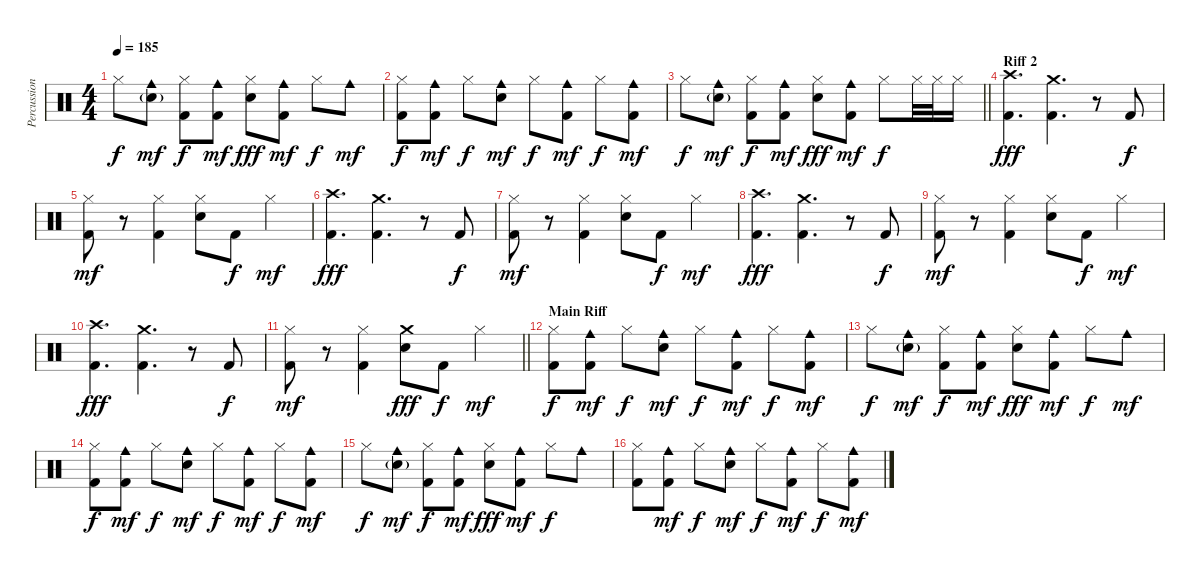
\track ("Percussions" "Percussion") {instrument percussion}
\staff {score}
\articulation defaults
\ts (4 4)
\tempo 185
\clef neutral
\ks c "Hi-Hat (closed)".8{dy f}
("Electric Snare (hit)"{g} "Cowbell medium (hit)").8{dy mf} ("Kick (hit) 2" "Hi-Hat (closed)").8{dy f} ("Kick (hit) 2" "Cowbell medium (hit)").8{dy mf} ("Electric Snare (hit)" "Hi-Hat (closed)").8{dy fff} ("Kick (hit) 2" "Cowbell medium (hit)").8{dy mf} "Hi-Hat (closed)".8{dy f} "Cowbell medium (hit)".8{dy mf} |
("Kick (hit) 2" "Hi-Hat (closed)").8{dy f} ("Kick (hit) 2" "Cowbell medium (hit)").8{dy mf} "Hi-Hat (closed)".8{dy f} ("Electric Snare (hit)" "Cowbell medium (hit)").8{dy mf} "Hi-Hat (closed)".8{dy f} ("Kick (hit) 2" "Cowbell medium (hit)").8{dy mf} "Hi-Hat (closed)".8{dy f} ("Kick (hit) 2" "Cowbell medium (hit)").8{dy mf} |
\barLineRight lightlight "Hi-Hat (closed)".8{dy f}
("Electric Snare (hit)"{g} "Cowbell medium (hit)").8{dy mf} ("Kick (hit) 2" "Hi-Hat (closed)").8{dy f} ("Kick (hit) 2" "Cowbell medium (hit)").8{dy mf} ("Electric Snare (hit)" "Hi-Hat (closed)").8{dy fff} ("Kick (hit) 2" "Cowbell medium (hit)").8{dy mf} "Hi-Hat (closed)".8{dy f} "Hi-Hat (closed)".32 "Hi-Hat (closed)".32 "Hi-Hat (closed)".16 |
\section ("" "Riff 2")
("Crash high (hit)" "Kick (hit) 2").4{d dy fff} ("Crash medium (hit)" "Kick (hit) 2").4{d} r.8 "Kick (hit) 2".8{dy f} |
("Kick (hit) 2" "Hi-Hat (closed)").8{dy mf} r.8 ("Kick (hit) 2" "Hi-Hat (closed)").4 ("Electric Snare (hit)" "Hi-Hat (closed)").8 "Kick (hit) 2".8{dy f} "Hi-Hat (closed)".4{dy mf} |
("Crash high (hit)" "Kick (hit) 2").4{d dy fff} ("Crash medium (hit)" "Kick (hit) 2").4{d} r.8 "Kick (hit) 2".8{dy f} |
("Kick (hit) 2" "Hi-Hat (closed)").8{dy mf} r.8 ("Kick (hit) 2" "Hi-Hat (closed)").4 ("Electric Snare (hit)" "Hi-Hat (closed)").8 "Kick (hit) 2".8{dy f} "Hi-Hat (closed)".4{dy mf} |
("Crash high (hit)" "Kick (hit) 2").4{d dy fff} ("Crash medium (hit)" "Kick (hit) 2").4{d} r.8 "Kick (hit) 2".8{dy f} |
("Kick (hit) 2" "Hi-Hat (closed)").8{dy mf} r.8 ("Kick (hit) 2" "Hi-Hat (closed)").4 ("Electric Snare (hit)" "Hi-Hat (closed)").8 "Kick (hit) 2".8{dy f} "Hi-Hat (closed)".4{dy mf} |
("Crash high (hit)" "Kick (hit) 2").4{d dy fff} ("Crash medium (hit)" "Kick (hit) 2").4{d} r.8 "Kick (hit) 2".8{dy f} |
\barLineRight lightlight
("Kick (hit) 2" "Hi-Hat (closed)").8{dy mf} r.8 ("Kick (hit) 2" "Hi-Hat (closed)").4 ("Crash medium (hit)" "Electric Snare (hit)").8{dy fff} "Kick (hit) 2".8{dy f} "Hi-Hat (closed)".4{dy mf} |
\section ("" "Main Riff")
("Kick (hit) 2" "Hi-Hat (closed)").8{dy f} ("Kick (hit) 2" "Cowbell medium (hit)").8{dy mf} "Hi-Hat (closed)".8{dy f} ("Electric Snare (hit)" "Cowbell medium (hit)").8{dy mf} "Hi-Hat (closed)".8{dy f} ("Kick (hit) 2" "Cowbell medium (hit)").8{dy mf} "Hi-Hat (closed)".8{dy f} ("Kick (hit) 2" "Cowbell medium (hit)").8{dy mf} |
"Hi-Hat (closed)".8{dy f} ("Electric Snare (hit)"{g} "Cowbell medium (hit)").8{dy mf} ("Kick (hit) 2" "Hi-Hat (closed)").8{dy f} ("Kick (hit) 2" "Cowbell medium (hit)").8{dy mf} ("Electric Snare (hit)" "Hi-Hat (closed)").8{dy fff} ("Kick (hit) 2" "Cowbell medium (hit)").8{dy mf} "Hi-Hat (closed)".8{dy f} "Cowbell medium (hit)".8{dy mf} |
("Kick (hit) 2" "Hi-Hat (closed)").8{dy f} ("Kick (hit) 2" "Cowbell medium (hit)").8{dy mf} "Hi-Hat (closed)".8{dy f} ("Electric Snare (hit)" "Cowbell medium (hit)").8{dy mf} "Hi-Hat (closed)".8{dy f} ("Kick (hit) 2" "Cowbell medium (hit)").8{dy mf} "Hi-Hat (closed)".8{dy f} ("Kick (hit) 2" "Cowbell medium (hit)").8{dy mf} |
"Hi-Hat (closed)".8{dy f} ("Electric Snare (hit)"{g} "Cowbell medium (hit)").8{dy mf} ("Kick (hit) 2" "Hi-Hat (closed)").8{dy f} ("Kick (hit) 2" "Cowbell medium (hit)").8{dy mf} ("Electric Snare (hit)" "Hi-Hat (closed)").8{dy fff} ("Kick (hit) 2" "Cowbell medium (hit)").8{dy mf} "Hi-Hat (closed)".8{dy f} "Cowbell medium (hit)".8 |
("Kick (hit) 2" "Hi-Hat (closed)").8 ("Kick (hit) 2" "Cowbell medium (hit)").8{dy mf} "Hi-Hat (closed)".8{dy f} ("Electric Snare (hit)" "Cowbell medium (hit)").8{dy mf} "Hi-Hat (closed)".8{dy f} ("Kick (hit) 2" "Cowbell medium (hit)").8{dy mf} "Hi-Hat (closed)".8{dy f} ("Kick (hit) 2" "Cowbell medium (hit)").8{dy mf}
